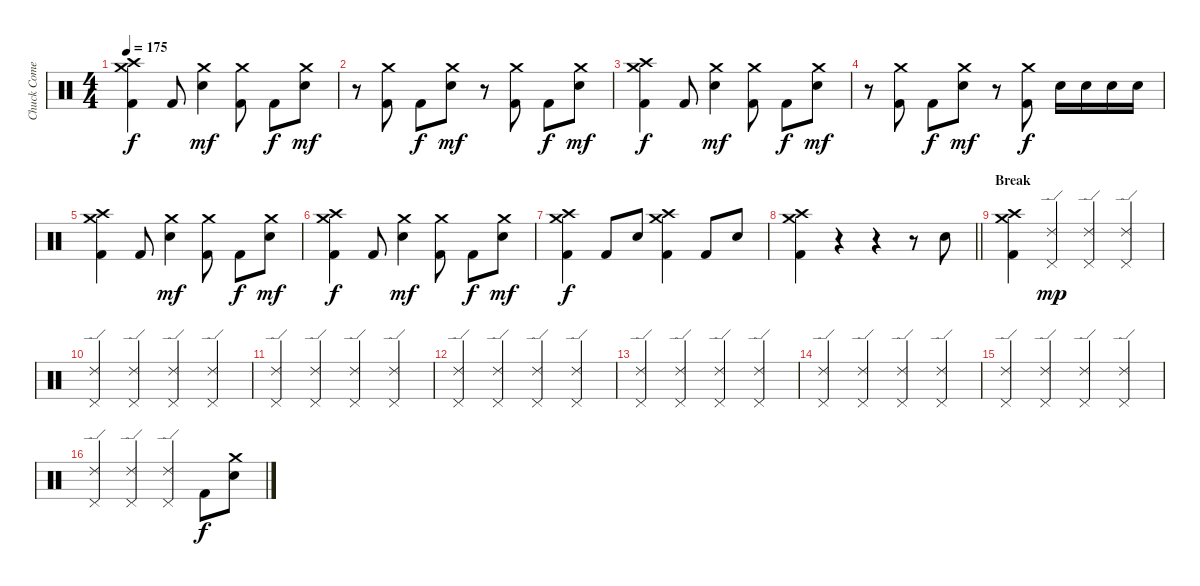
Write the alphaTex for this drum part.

\track ("Chuck Comeau" "Chuck Come") {instrument percussion}
\staff {score}
\articulation defaults
\ts (4 4)
\tempo 175
\clef neutral
\ks c
("Crash high (hit)" "Crash medium (hit)" "Kick (hit) 2").4{dy f} "Kick (hit) 2".8 ("Crash medium (hit)" "Electric Snare (hit)").4{dy mf} ("Crash medium (hit)" "Kick (hit) 2").8 "Kick (hit) 2".8{dy f} ("Crash medium (hit)" "Electric Snare (hit)").8{dy mf} |
r.8 ("Crash medium (hit)" "Kick (hit) 2").8 "Kick (hit) 2".8{dy f} ("Crash medium (hit)" "Electric Snare (hit)").8{dy mf} r.8 ("Crash medium (hit)" "Kick (hit) 2").8 "Kick (hit) 2".8{dy f} ("Crash medium (hit)" "Electric Snare (hit)").8{dy mf} |
("Crash high (hit)" "Crash medium (hit)" "Kick (hit) 2").4{dy f} "Kick (hit) 2".8 ("Crash medium (hit)" "Electric Snare (hit)").4{dy mf} ("Crash medium (hit)" "Kick (hit) 2").8 "Kick (hit) 2".8{dy f} ("Crash medium (hit)" "Electric Snare (hit)").8{dy mf} |
r.8 ("Crash medium (hit)" "Kick (hit) 2").8 "Kick (hit) 2".8{dy f} ("Crash medium (hit)" "Electric Snare (hit)").8{dy mf} r.8 ("Crash medium (hit)" "Kick (hit) 2").8{dy f} "Electric Snare (hit)".16 "Electric Snare (hit)".16 "Electric Snare (hit)".16 "Electric Snare (hit)".16 |
("Crash high (hit)" "Crash medium (hit)" "Kick (hit) 2").4 "Kick (hit) 2".8 ("Crash medium (hit)" "Electric Snare (hit)").4{dy mf} ("Crash medium (hit)" "Kick (hit) 2").8 "Kick (hit) 2".8{dy f} ("Crash medium (hit)" "Electric Snare (hit)").8{dy mf} |
("Crash high (hit)" "Crash medium (hit)" "Kick (hit) 2").4{dy f} "Kick (hit) 2".8 ("Crash medium (hit)" "Electric Snare (hit)").4{dy mf} ("Crash medium (hit)" "Kick (hit) 2").8 "Kick (hit) 2".8{dy f} ("Crash medium (hit)" "Electric Snare (hit)").8{dy mf} |
("Crash high (hit)" "Crash medium (hit)" "Kick (hit) 2").4{dy f} "Kick (hit) 2".8 "Electric Snare (hit)".8 ("Crash high (hit)" "Crash medium (hit)" "Kick (hit) 2").4 "Kick (hit) 2".8 "Electric Snare (hit)".8 |
\barLineRight lightlight
("Crash high (hit)" "Crash medium (hit)" "Kick (hit) 2").4 r.4 r.4 r.8 "Electric Snare (hit)".8 |
\section ("" "Break")
("Crash high (hit)" "Crash medium (hit)" "Kick (hit) 2").4 ("Pedal Hi-Hat (hit)" "Ride (edge) 2").4{dy mp} ("Pedal Hi-Hat (hit)" "Ride (edge) 2").4 ("Pedal Hi-Hat (hit)" "Ride (edge) 2").4 |
("Pedal Hi-Hat (hit)" "Ride (edge) 2").4 ("Pedal Hi-Hat (hit)" "Ride (edge) 2").4 ("Pedal Hi-Hat (hit)" "Ride (edge) 2").4 ("Pedal Hi-Hat (hit)" "Ride (edge) 2").4 |
("Pedal Hi-Hat (hit)" "Ride (edge) 2").4 ("Pedal Hi-Hat (hit)" "Ride (edge) 2").4 ("Pedal Hi-Hat (hit)" "Ride (edge) 2").4 ("Pedal Hi-Hat (hit)" "Ride (edge) 2").4 |
("Pedal Hi-Hat (hit)" "Ride (edge) 2").4 ("Pedal Hi-Hat (hit)" "Ride (edge) 2").4 ("Pedal Hi-Hat (hit)" "Ride (edge) 2").4 ("Pedal Hi-Hat (hit)" "Ride (edge) 2").4 |
("Pedal Hi-Hat (hit)" "Ride (edge) 2").4 ("Pedal Hi-Hat (hit)" "Ride (edge) 2").4 ("Pedal Hi-Hat (hit)" "Ride (edge) 2").4 ("Pedal Hi-Hat (hit)" "Ride (edge) 2").4 |
("Pedal Hi-Hat (hit)" "Ride (edge) 2").4 ("Pedal Hi-Hat (hit)" "Ride (edge) 2").4 ("Pedal Hi-Hat (hit)" "Ride (edge) 2").4 ("Pedal Hi-Hat (hit)" "Ride (edge) 2").4 |
("Pedal Hi-Hat (hit)" "Ride (edge) 2").4 ("Pedal Hi-Hat (hit)" "Ride (edge) 2").4 ("Pedal Hi-Hat (hit)" "Ride (edge) 2").4 ("Pedal Hi-Hat (hit)" "Ride (edge) 2").4 |
("Pedal Hi-Hat (hit)" "Ride (edge) 2").4 ("Pedal Hi-Hat (hit)" "Ride (edge) 2").4 ("Pedal Hi-Hat (hit)" "Ride (edge) 2").4 "Kick (hit) 2".8{dy f} ("Crash medium (hit)" "Electric Snare (hit)").8
